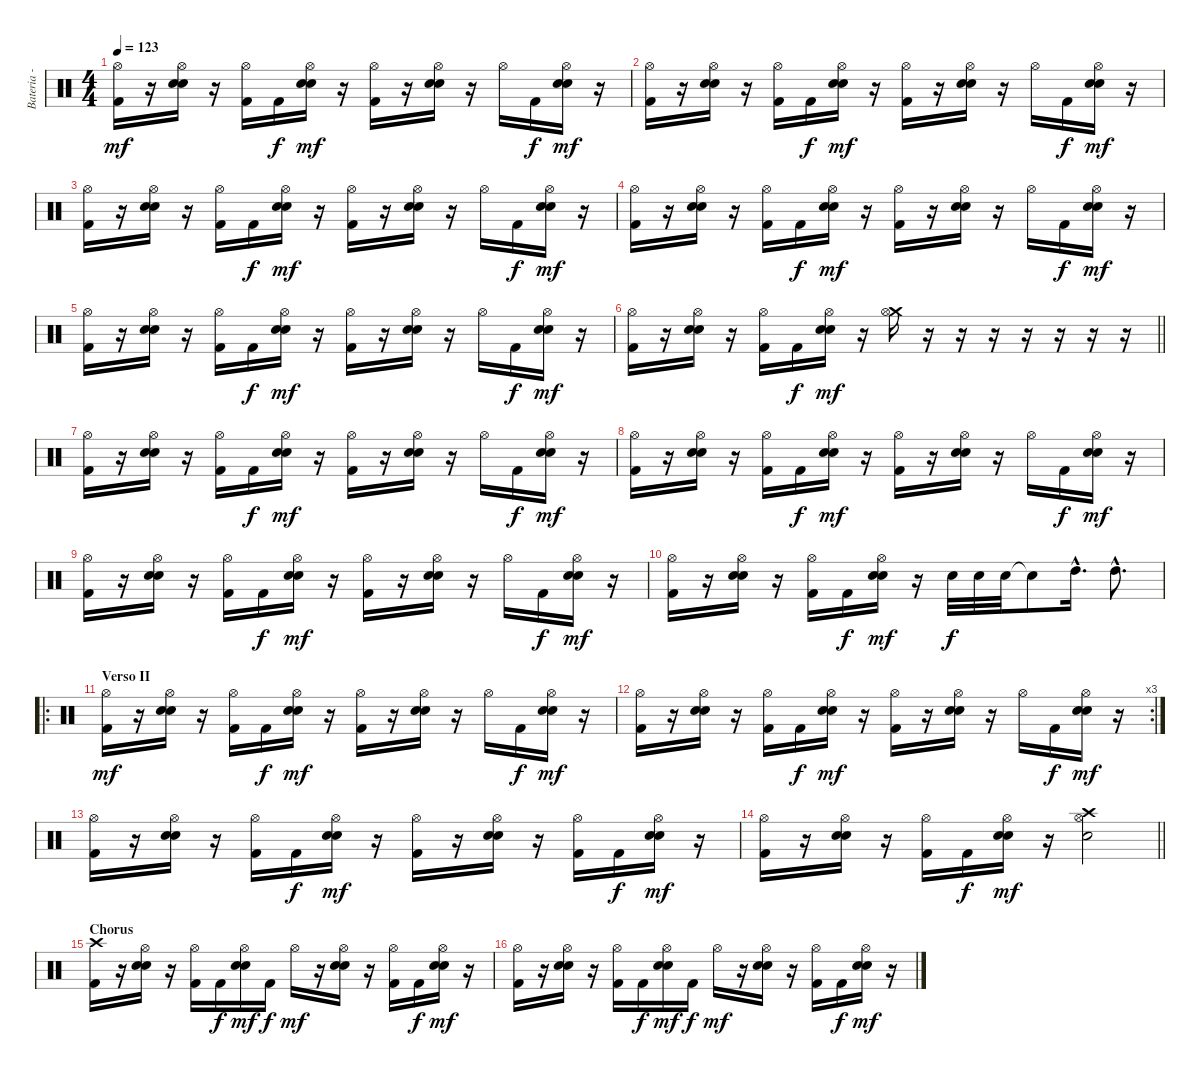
\track ("Bateria - Larzon" "Bateria - ") {instrument percussion}
\staff {score}
\articulation defaults
\ts (4 4)
\tempo 123
\clef neutral
\ks c
("Kick (hit) 2" "Hi-Hat (open)").16{dy mf} r.16 ("Electric Snare (hit)" "Electric Snare (hit)" "Hi-Hat (open)").16 r.16 ("Kick (hit) 2" "Hi-Hat (open)").16 "Kick (hit) 2".16{dy f} ("Electric Snare (hit)" "Electric Snare (hit)" "Hi-Hat (open)").16{dy mf} r.16 ("Kick (hit) 2" "Hi-Hat (open)").16 r.16 ("Electric Snare (hit)" "Electric Snare (hit)" "Hi-Hat (open)").16 r.16 "Hi-Hat (open)".16 "Kick (hit) 2".16{dy f} ("Electric Snare (hit)" "Electric Snare (hit)" "Hi-Hat (open)").16{dy mf} r.16 |
("Kick (hit) 2" "Hi-Hat (open)").16 r.16 ("Electric Snare (hit)" "Electric Snare (hit)" "Hi-Hat (open)").16 r.16 ("Kick (hit) 2" "Hi-Hat (open)").16 "Kick (hit) 2".16{dy f} ("Electric Snare (hit)" "Electric Snare (hit)" "Hi-Hat (open)").16{dy mf} r.16 ("Kick (hit) 2" "Hi-Hat (open)").16 r.16 ("Electric Snare (hit)" "Electric Snare (hit)" "Hi-Hat (open)").16 r.16 "Hi-Hat (open)".16 "Kick (hit) 2".16{dy f} ("Electric Snare (hit)" "Electric Snare (hit)" "Hi-Hat (open)").16{dy mf} r.16 |
("Kick (hit) 2" "Hi-Hat (open)").16 r.16 ("Electric Snare (hit)" "Electric Snare (hit)" "Hi-Hat (open)").16 r.16 ("Kick (hit) 2" "Hi-Hat (open)").16 "Kick (hit) 2".16{dy f} ("Electric Snare (hit)" "Electric Snare (hit)" "Hi-Hat (open)").16{dy mf} r.16 ("Kick (hit) 2" "Hi-Hat (open)").16 r.16 ("Electric Snare (hit)" "Electric Snare (hit)" "Hi-Hat (open)").16 r.16 "Hi-Hat (open)".16 "Kick (hit) 2".16{dy f} ("Electric Snare (hit)" "Electric Snare (hit)" "Hi-Hat (open)").16{dy mf} r.16 |
("Kick (hit) 2" "Hi-Hat (open)").16 r.16 ("Electric Snare (hit)" "Electric Snare (hit)" "Hi-Hat (open)").16 r.16 ("Kick (hit) 2" "Hi-Hat (open)").16 "Kick (hit) 2".16{dy f} ("Electric Snare (hit)" "Electric Snare (hit)" "Hi-Hat (open)").16{dy mf} r.16 ("Kick (hit) 2" "Hi-Hat (open)").16 r.16 ("Electric Snare (hit)" "Electric Snare (hit)" "Hi-Hat (open)").16 r.16 "Hi-Hat (open)".16 "Kick (hit) 2".16{dy f} ("Electric Snare (hit)" "Electric Snare (hit)" "Hi-Hat (open)").16{dy mf} r.16 |
("Kick (hit) 2" "Hi-Hat (open)").16 r.16 ("Electric Snare (hit)" "Electric Snare (hit)" "Hi-Hat (open)").16 r.16 ("Kick (hit) 2" "Hi-Hat (open)").16 "Kick (hit) 2".16{dy f} ("Electric Snare (hit)" "Electric Snare (hit)" "Hi-Hat (open)").16{dy mf} r.16 ("Kick (hit) 2" "Hi-Hat (open)").16 r.16 ("Electric Snare (hit)" "Electric Snare (hit)" "Hi-Hat (open)").16 r.16 "Hi-Hat (open)".16 "Kick (hit) 2".16{dy f} ("Electric Snare (hit)" "Electric Snare (hit)" "Hi-Hat (open)").16{dy mf} r.16 |
\barLineRight lightlight
("Kick (hit) 2" "Hi-Hat (open)").16 r.16 ("Electric Snare (hit)" "Electric Snare (hit)" "Hi-Hat (open)").16 r.16 ("Kick (hit) 2" "Hi-Hat (open)").16 "Kick (hit) 2".16{dy f} ("Electric Snare (hit)" "Electric Snare (hit)" "Hi-Hat (open)").16{dy mf} r.16 ("Crash medium (hit)" "Hi-Hat (open)").16 r.16 r.16 r.16 r.16 r.16 r.16 r.16 |
("Kick (hit) 2" "Hi-Hat (open)").16 r.16 ("Electric Snare (hit)" "Electric Snare (hit)" "Hi-Hat (open)").16 r.16 ("Kick (hit) 2" "Hi-Hat (open)").16 "Kick (hit) 2".16{dy f} ("Electric Snare (hit)" "Electric Snare (hit)" "Hi-Hat (open)").16{dy mf} r.16 ("Kick (hit) 2" "Hi-Hat (open)").16 r.16 ("Electric Snare (hit)" "Electric Snare (hit)" "Hi-Hat (open)").16 r.16 "Hi-Hat (open)".16 "Kick (hit) 2".16{dy f} ("Electric Snare (hit)" "Electric Snare (hit)" "Hi-Hat (open)").16{dy mf} r.16 |
("Kick (hit) 2" "Hi-Hat (open)").16 r.16 ("Electric Snare (hit)" "Electric Snare (hit)" "Hi-Hat (open)").16 r.16 ("Kick (hit) 2" "Hi-Hat (open)").16 "Kick (hit) 2".16{dy f} ("Electric Snare (hit)" "Electric Snare (hit)" "Hi-Hat (open)").16{dy mf} r.16 ("Kick (hit) 2" "Hi-Hat (open)").16 r.16 ("Electric Snare (hit)" "Electric Snare (hit)" "Hi-Hat (open)").16 r.16 "Hi-Hat (open)".16 "Kick (hit) 2".16{dy f} ("Electric Snare (hit)" "Electric Snare (hit)" "Hi-Hat (open)").16{dy mf} r.16 |
("Kick (hit) 2" "Hi-Hat (open)").16 r.16 ("Electric Snare (hit)" "Electric Snare (hit)" "Hi-Hat (open)").16 r.16 ("Kick (hit) 2" "Hi-Hat (open)").16 "Kick (hit) 2".16{dy f} ("Electric Snare (hit)" "Electric Snare (hit)" "Hi-Hat (open)").16{dy mf} r.16 ("Kick (hit) 2" "Hi-Hat (open)").16 r.16 ("Electric Snare (hit)" "Electric Snare (hit)" "Hi-Hat (open)").16 r.16 "Hi-Hat (open)".16 "Kick (hit) 2".16{dy f} ("Electric Snare (hit)" "Electric Snare (hit)" "Hi-Hat (open)").16{dy mf} r.16 |
("Kick (hit) 2" "Hi-Hat (open)").16 r.16 ("Electric Snare (hit)" "Electric Snare (hit)" "Hi-Hat (open)").16 r.16 ("Kick (hit) 2" "Hi-Hat (open)").16 "Kick (hit) 2".16{dy f} ("Electric Snare (hit)" "Electric Snare (hit)" "Hi-Hat (open)").16{dy mf} r.16 "Electric Snare (hit)".32{dy f} "Electric Snare (hit)".32 "Electric Snare (hit)".32 "Electric Snare (hit)"{t}.8 "High Tom (hit)"{hac}.16{d} "High Tom (hit)"{hac}.8{d} |
\ro
\section ("" "Verso II")
("Kick (hit) 2" "Hi-Hat (open)").16{dy mf} r.16 ("Electric Snare (hit)" "Electric Snare (hit)" "Hi-Hat (open)").16 r.16 ("Kick (hit) 2" "Hi-Hat (open)").16 "Kick (hit) 2".16{dy f} ("Electric Snare (hit)" "Electric Snare (hit)" "Hi-Hat (open)").16{dy mf} r.16 ("Kick (hit) 2" "Hi-Hat (open)").16 r.16 ("Electric Snare (hit)" "Electric Snare (hit)" "Hi-Hat (open)").16 r.16 "Hi-Hat (open)".16 "Kick (hit) 2".16{dy f} ("Electric Snare (hit)" "Electric Snare (hit)" "Hi-Hat (open)").16{dy mf} r.16 |
\rc 3
("Kick (hit) 2" "Hi-Hat (open)").16 r.16 ("Electric Snare (hit)" "Electric Snare (hit)" "Hi-Hat (open)").16 r.16 ("Kick (hit) 2" "Hi-Hat (open)").16 "Kick (hit) 2".16{dy f} ("Electric Snare (hit)" "Electric Snare (hit)" "Hi-Hat (open)").16{dy mf} r.16 ("Kick (hit) 2" "Hi-Hat (open)").16 r.16 ("Electric Snare (hit)" "Electric Snare (hit)" "Hi-Hat (open)").16 r.16 "Hi-Hat (open)".16 "Kick (hit) 2".16{dy f} ("Electric Snare (hit)" "Electric Snare (hit)" "Hi-Hat (open)").16{dy mf} r.16 |
("Kick (hit) 2" "Hi-Hat (open)").16 r.16 ("Electric Snare (hit)" "Electric Snare (hit)" "Hi-Hat (open)").16 r.16 ("Kick (hit) 2" "Hi-Hat (open)").16 "Kick (hit) 2".16{dy f} ("Electric Snare (hit)" "Electric Snare (hit)" "Hi-Hat (open)").16{dy mf} r.16 ("Kick (hit) 2" "Hi-Hat (open)").16 r.16 ("Electric Snare (hit)" "Electric Snare (hit)" "Hi-Hat (open)").16 r.16 ("Kick (hit) 2" "Hi-Hat (open)").16 "Kick (hit) 2".16{dy f} ("Electric Snare (hit)" "Electric Snare (hit)" "Hi-Hat (open)").16{dy mf} r.16 |
\barLineRight lightlight
("Kick (hit) 2" "Hi-Hat (open)").16 r.16 ("Electric Snare (hit)" "Electric Snare (hit)" "Hi-Hat (open)").16 r.16 ("Kick (hit) 2" "Hi-Hat (open)").16 "Kick (hit) 2".16{dy f} ("Electric Snare (hit)" "Electric Snare (hit)" "Hi-Hat (open)").16{dy mf} r.16 ("Crash high (hit)" "Electric Snare (hit)" "Hi-Hat (open)").2 |
\section ("" "Chorus")
("Kick (hit) 2" "Crash high (hit)").16 r.16 ("Electric Snare (hit)" "Electric Snare (hit)" "Hi-Hat (open)").16 r.16 ("Kick (hit) 2" "Hi-Hat (open)").16 "Kick (hit) 2".16{dy f} ("Electric Snare (hit)" "Electric Snare (hit)" "Hi-Hat (open)").16{dy mf} "Kick (hit) 2".16{dy f} "Hi-Hat (open)".16{dy mf} r.16 ("Electric Snare (hit)" "Electric Snare (hit)" "Hi-Hat (open)").16 r.16 ("Kick (hit) 2" "Hi-Hat (open)").16 "Kick (hit) 2".16{dy f} ("Electric Snare (hit)" "Electric Snare (hit)" "Hi-Hat (open)").16{dy mf} r.16 |
("Kick (hit) 2" "Hi-Hat (open)").16 r.16 ("Electric Snare (hit)" "Electric Snare (hit)" "Hi-Hat (open)").16 r.16 ("Kick (hit) 2" "Hi-Hat (open)").16 "Kick (hit) 2".16{dy f} ("Electric Snare (hit)" "Electric Snare (hit)" "Hi-Hat (open)").16{dy mf} "Kick (hit) 2".16{dy f} "Hi-Hat (open)".16{dy mf} r.16 ("Electric Snare (hit)" "Electric Snare (hit)" "Hi-Hat (open)").16 r.16 ("Kick (hit) 2" "Hi-Hat (open)").16 "Kick (hit) 2".16{dy f} ("Electric Snare (hit)" "Electric Snare (hit)" "Hi-Hat (open)").16{dy mf} r.16
